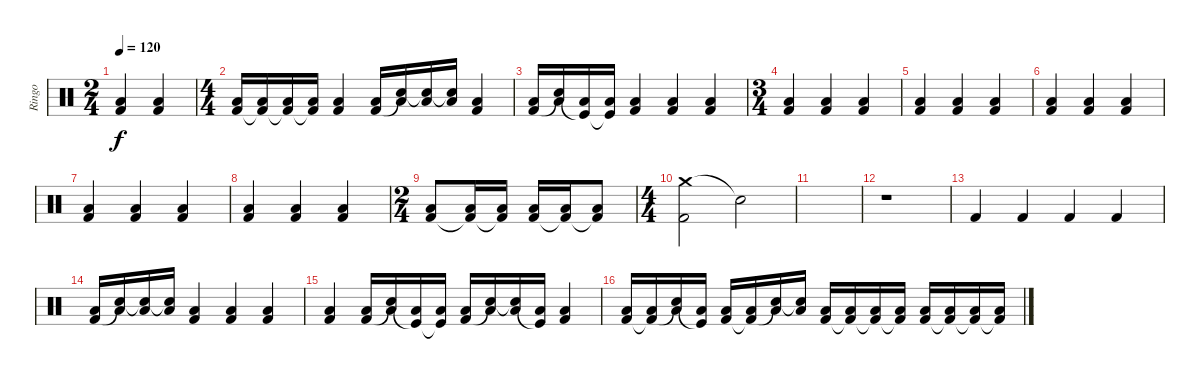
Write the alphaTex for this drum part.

\track ("Ringo" "Ringo") {instrument percussion}
\staff {score}
\articulation defaults
\ts (2 4)
\tempo 120
\clef neutral
\ks c
("Low Floor Tom (hit)" "Kick (hit) 2").4{dy f} ("Low Floor Tom (hit)" "Kick (hit) 2").4 |
\ts (4 4)
("Low Floor Tom (hit)" "Kick (hit) 2").16 ("Low Floor Tom (hit)" "Kick (hit) 2"{t}).16 ("Low Floor Tom (hit)" "Kick (hit) 2"{t}).16 ("Low Floor Tom (hit)" "Kick (hit) 2"{t}).16 ("Low Floor Tom (hit)" "Kick (hit) 2").4 ("Low Floor Tom (hit)" "Kick (hit) 2").16 ("Low Floor Tom (hit)" "Snare (hit)"{t}).16 ("Low Floor Tom (hit)" "Snare (hit)"{t}).16 ("Low Floor Tom (hit)" "Snare (hit)"{t}).16 ("Low Floor Tom (hit)" "Kick (hit) 2").4 |
("Low Floor Tom (hit)" "Kick (hit) 2").16 ("Low Floor Tom (hit)" "Snare (hit)"{t}).16 ("Low Floor Tom (hit)" "Kick (hit)"{t}).16 ("Low Floor Tom (hit)" "Kick (hit)"{t}).16 ("Low Floor Tom (hit)" "Kick (hit) 2").4 ("Low Floor Tom (hit)" "Kick (hit) 2").4 ("Low Floor Tom (hit)" "Kick (hit) 2").4 |
\ts (3 4)
("Low Floor Tom (hit)" "Kick (hit) 2").4 ("Low Floor Tom (hit)" "Kick (hit) 2").4 ("Low Floor Tom (hit)" "Kick (hit) 2").4 |
("Low Floor Tom (hit)" "Kick (hit) 2").4 ("Low Floor Tom (hit)" "Kick (hit) 2").4 ("Low Floor Tom (hit)" "Kick (hit) 2").4 |
("Low Floor Tom (hit)" "Kick (hit) 2").4 ("Low Floor Tom (hit)" "Kick (hit) 2").4 ("Low Floor Tom (hit)" "Kick (hit) 2").4 |
("Low Floor Tom (hit)" "Kick (hit) 2").4 ("Low Floor Tom (hit)" "Kick (hit) 2").4 ("Low Floor Tom (hit)" "Kick (hit) 2").4 |
("Low Floor Tom (hit)" "Kick (hit) 2").4 ("Low Floor Tom (hit)" "Kick (hit) 2").4 ("Low Floor Tom (hit)" "Kick (hit) 2").4 |
\ts (2 4)
("Low Floor Tom (hit)" "Kick (hit) 2").8 ("Low Floor Tom (hit)" "Kick (hit) 2"{t}).16 ("Low Floor Tom (hit)" "Kick (hit) 2"{t}).16 ("Low Floor Tom (hit)" "Kick (hit) 2").16 ("Low Floor Tom (hit)" "Kick (hit) 2"{t}).16 ("Low Floor Tom (hit)" "Kick (hit) 2"{t}).8 |
\ts (4 4)
("Crash medium (hit)" "Kick (hit) 2").2 "Snare (hit)"{t}.2 |
|
r.1 |
"Kick (hit) 2".4{volume 16} "Kick (hit) 2".4 "Kick (hit) 2".4 "Kick (hit) 2".4 |
("Low Floor Tom (hit)" "Kick (hit) 2").16 ("Low Floor Tom (hit)" "Snare (hit)"{t}).16 ("Low Floor Tom (hit)" "Snare (hit)"{t}).16 ("Low Floor Tom (hit)" "Snare (hit)"{t}).16 ("Low Floor Tom (hit)" "Kick (hit) 2").4 ("Low Floor Tom (hit)" "Kick (hit) 2").4 ("Low Floor Tom (hit)" "Kick (hit) 2").4 |
("Low Floor Tom (hit)" "Kick (hit) 2").4 ("Low Floor Tom (hit)" "Kick (hit) 2").16 ("Low Floor Tom (hit)" "Snare (hit)"{t}).16 ("Low Floor Tom (hit)" "Kick (hit)"{t}).16 ("Low Floor Tom (hit)" "Kick (hit)"{t}).16 ("Low Floor Tom (hit)" "Kick (hit) 2").16 ("Low Floor Tom (hit)" "Snare (hit)"{t}).16 ("Low Floor Tom (hit)" "Snare (hit)"{t}).16 ("Low Floor Tom (hit)" "Kick (hit)"{t}).16 ("Low Floor Tom (hit)" "Kick (hit) 2").4 |
("Low Floor Tom (hit)" "Kick (hit) 2").16 ("Low Floor Tom (hit)" "Kick (hit) 2"{t}).16 ("Low Floor Tom (hit)" "Snare (hit)"{t}).16 ("Low Floor Tom (hit)" "Kick (hit)"{t}).16 ("Low Floor Tom (hit)" "Kick (hit) 2").16 ("Low Floor Tom (hit)" "Kick (hit) 2"{t}).16 ("Low Floor Tom (hit)" "Snare (hit)"{t}).16 ("Low Floor Tom (hit)" "Snare (hit)"{t}).16 ("Low Floor Tom (hit)" "Kick (hit) 2").16 ("Low Floor Tom (hit)" "Kick (hit) 2"{t}).16 ("Low Floor Tom (hit)" "Kick (hit) 2"{t}).16 ("Low Floor Tom (hit)" "Kick (hit) 2"{t}).16 ("Low Floor Tom (hit)" "Kick (hit) 2").16 ("Low Floor Tom (hit)" "Kick (hit) 2"{t}).16 ("Low Floor Tom (hit)" "Kick (hit) 2"{t}).16 ("Low Floor Tom (hit)" "Kick (hit) 2"{t}).16
